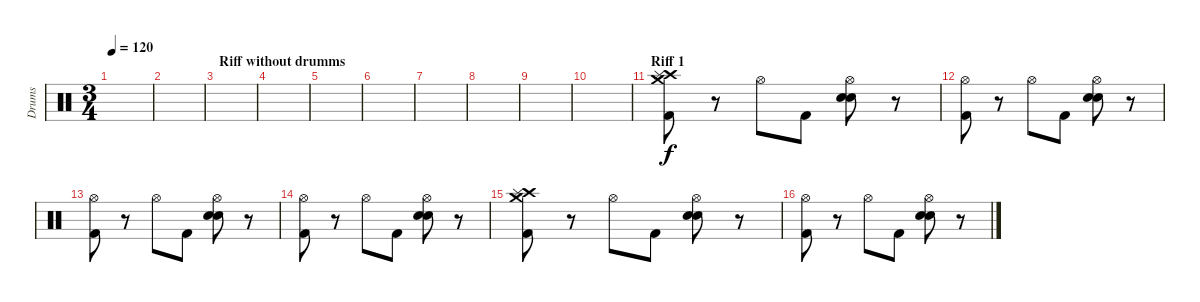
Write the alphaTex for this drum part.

\track ("Drums" "Drums") {instrument percussion}
\staff {score}
\articulation defaults
\ts (3 4)
\tempo 120
\clef neutral
\ks c
|
|
\section ("" "Riff without drumms")
|
|
|
|
|
|
|
|
\section ("" "Riff 1")
("Kick (hit) 2" "Crash medium (hit)" "Crash high (hit)" "Splash (hit)").8 r.8 "Hi-Hat (open)".8 "Kick (hit) 2".8 ("Electric Snare (hit)" "Electric Snare (hit)" "Hi-Hat (open)").8 r.8 |
("Kick (hit) 2" "Hi-Hat (open)").8 r.8 "Hi-Hat (open)".8 "Kick (hit) 2".8 ("Electric Snare (hit)" "Electric Snare (hit)" "Hi-Hat (open)").8 r.8 |
("Kick (hit) 2" "Hi-Hat (open)").8 r.8 "Hi-Hat (open)".8 "Kick (hit) 2".8 ("Electric Snare (hit)" "Electric Snare (hit)" "Hi-Hat (open)").8 r.8 |
("Kick (hit) 2" "Hi-Hat (open)").8 r.8 "Hi-Hat (open)".8 "Kick (hit) 2".8 ("Electric Snare (hit)" "Electric Snare (hit)" "Hi-Hat (open)").8 r.8 |
("Kick (hit) 2" "Crash medium (hit)" "Crash high (hit)" "Splash (hit)").8 r.8 "Hi-Hat (open)".8 "Kick (hit) 2".8 ("Electric Snare (hit)" "Electric Snare (hit)" "Hi-Hat (open)").8 r.8 |
("Kick (hit) 2" "Hi-Hat (open)").8 r.8 "Hi-Hat (open)".8 "Kick (hit) 2".8 ("Electric Snare (hit)" "Electric Snare (hit)" "Hi-Hat (open)").8 r.8
